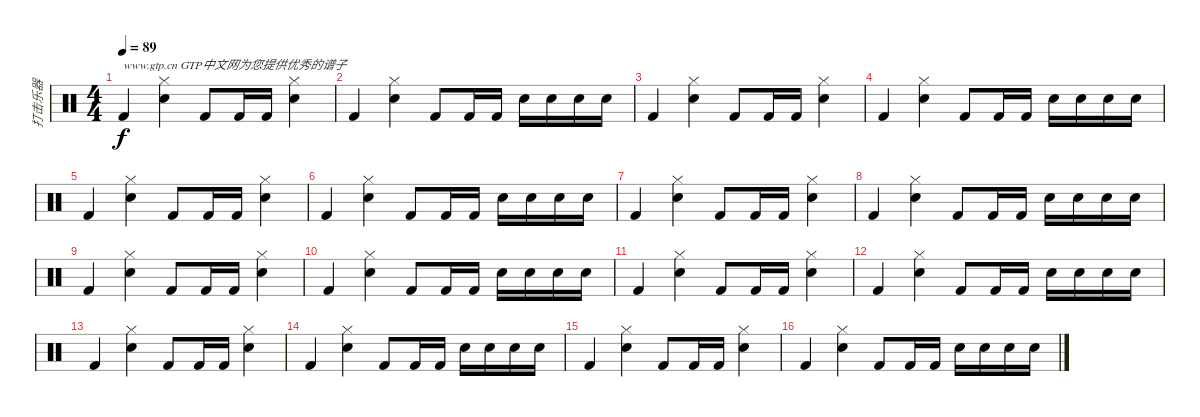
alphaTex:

\track ("打击乐器" "打击乐器") {instrument percussion}
\staff {score}
\articulation defaults
\ts (4 4)
\tempo 89
\clef neutral
\ks c "Kick (hit) 2".4{txt "www.gtp.cn GTP中文网为您提供优秀的谱子" dy f}
("Snare (hit) 2" "Hi-Hat (closed)").4 "Kick (hit) 2".8 "Kick (hit) 2".16 "Kick (hit) 2".16 ("Snare (hit) 2" "Hi-Hat (closed)").4 |
"Kick (hit) 2".4 ("Snare (hit) 2" "Hi-Hat (closed)").4 "Kick (hit) 2".8 "Kick (hit) 2".16 "Kick (hit) 2".16 "Electric Snare (hit)".16 "Electric Snare (hit)".16 "Electric Snare (hit)".16 "Electric Snare (hit)".16 |
"Kick (hit) 2".4 ("Snare (hit) 2" "Hi-Hat (closed)").4 "Kick (hit) 2".8 "Kick (hit) 2".16 "Kick (hit) 2".16 ("Snare (hit) 2" "Hi-Hat (closed)").4 |
"Kick (hit) 2".4 ("Snare (hit) 2" "Hi-Hat (closed)").4 "Kick (hit) 2".8 "Kick (hit) 2".16 "Kick (hit) 2".16 "Electric Snare (hit)".16 "Electric Snare (hit)".16 "Electric Snare (hit)".16 "Electric Snare (hit)".16 |
"Kick (hit) 2".4 ("Snare (hit) 2" "Hi-Hat (closed)").4 "Kick (hit) 2".8 "Kick (hit) 2".16 "Kick (hit) 2".16 ("Snare (hit) 2" "Hi-Hat (closed)").4 |
"Kick (hit) 2".4 ("Snare (hit) 2" "Hi-Hat (closed)").4 "Kick (hit) 2".8 "Kick (hit) 2".16 "Kick (hit) 2".16 "Electric Snare (hit)".16 "Electric Snare (hit)".16 "Electric Snare (hit)".16 "Electric Snare (hit)".16 |
"Kick (hit) 2".4 ("Snare (hit) 2" "Hi-Hat (closed)").4 "Kick (hit) 2".8 "Kick (hit) 2".16 "Kick (hit) 2".16 ("Snare (hit) 2" "Hi-Hat (closed)").4 |
"Kick (hit) 2".4 ("Snare (hit) 2" "Hi-Hat (closed)").4 "Kick (hit) 2".8 "Kick (hit) 2".16 "Kick (hit) 2".16 "Electric Snare (hit)".16 "Electric Snare (hit)".16 "Electric Snare (hit)".16 "Electric Snare (hit)".16 |
"Kick (hit) 2".4 ("Snare (hit) 2" "Hi-Hat (closed)").4 "Kick (hit) 2".8 "Kick (hit) 2".16 "Kick (hit) 2".16 ("Snare (hit) 2" "Hi-Hat (closed)").4 |
"Kick (hit) 2".4 ("Snare (hit) 2" "Hi-Hat (closed)").4 "Kick (hit) 2".8 "Kick (hit) 2".16 "Kick (hit) 2".16 "Electric Snare (hit)".16 "Electric Snare (hit)".16 "Electric Snare (hit)".16 "Electric Snare (hit)".16 |
"Kick (hit) 2".4 ("Snare (hit) 2" "Hi-Hat (closed)").4 "Kick (hit) 2".8 "Kick (hit) 2".16 "Kick (hit) 2".16 ("Snare (hit) 2" "Hi-Hat (closed)").4 |
"Kick (hit) 2".4 ("Snare (hit) 2" "Hi-Hat (closed)").4 "Kick (hit) 2".8 "Kick (hit) 2".16 "Kick (hit) 2".16 "Electric Snare (hit)".16 "Electric Snare (hit)".16 "Electric Snare (hit)".16 "Electric Snare (hit)".16 |
"Kick (hit) 2".4 ("Snare (hit) 2" "Hi-Hat (closed)").4 "Kick (hit) 2".8 "Kick (hit) 2".16 "Kick (hit) 2".16 ("Snare (hit) 2" "Hi-Hat (closed)").4 |
"Kick (hit) 2".4 ("Snare (hit) 2" "Hi-Hat (closed)").4 "Kick (hit) 2".8 "Kick (hit) 2".16 "Kick (hit) 2".16 "Electric Snare (hit)".16 "Electric Snare (hit)".16 "Electric Snare (hit)".16 "Electric Snare (hit)".16 |
"Kick (hit) 2".4 ("Snare (hit) 2" "Hi-Hat (closed)").4 "Kick (hit) 2".8 "Kick (hit) 2".16 "Kick (hit) 2".16 ("Snare (hit) 2" "Hi-Hat (closed)").4 |
"Kick (hit) 2".4 ("Snare (hit) 2" "Hi-Hat (closed)").4 "Kick (hit) 2".8 "Kick (hit) 2".16 "Kick (hit) 2".16 "Electric Snare (hit)".16 "Electric Snare (hit)".16 "Electric Snare (hit)".16 "Electric Snare (hit)".16
